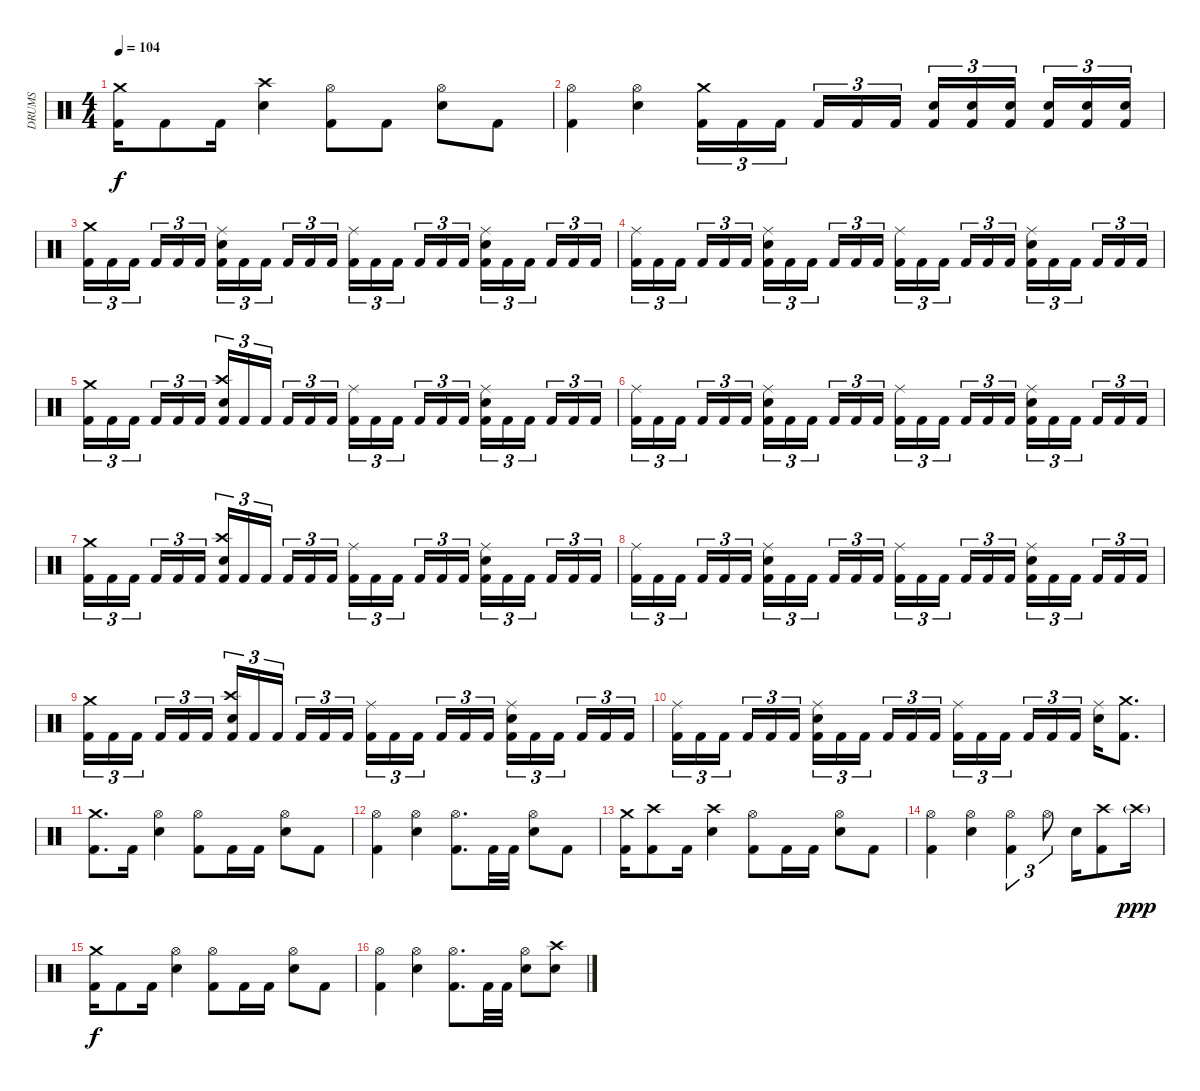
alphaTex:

\track ("DRUMS" "DRUMS") {instrument percussion}
\staff {score}
\articulation defaults
\ts (4 4)
\tempo 104
\clef neutral
\ks c
("Crash medium (hit)" "Kick (hit) 2").16{dy f} "Kick (hit) 2".8 "Kick (hit) 2".16 ("Crash high (hit)" "Snare (hit) 2").4 ("Hi-Hat (open)" "Kick (hit) 2").8 "Kick (hit) 2".8 ("Hi-Hat (open)" "Snare (hit) 2").8 "Kick (hit) 2".8 |
("Hi-Hat (open)" "Kick (hit) 2").4 ("Hi-Hat (open)" "Snare (hit) 2").4 ("Crash medium (hit)" "Kick (hit) 2").16{tu (3 2)} "Kick (hit) 2".16{tu (3 2)} "Kick (hit) 2".16{tu (3 2) beam splitsecondary} "Kick (hit) 2".16{tu (3 2)} "Kick (hit) 2".16{tu (3 2)} "Kick (hit) 2".16{tu (3 2)} ("Snare (hit) 2" "Kick (hit) 2").16{tu (3 2)} ("Snare (hit) 2" "Kick (hit) 2").16{tu (3 2)} ("Snare (hit) 2" "Kick (hit) 2").16{tu (3 2) beam splitsecondary} ("Snare (hit) 2" "Kick (hit) 2").16{tu (3 2)} ("Snare (hit) 2" "Kick (hit) 2").16{tu (3 2)} ("Snare (hit) 2" "Kick (hit) 2").16{tu (3 2)} |
("Crash medium (hit)" "Kick (hit) 2").16{tu (3 2)} "Kick (hit) 2".16{tu (3 2)} "Kick (hit) 2".16{tu (3 2) beam splitsecondary} "Kick (hit) 2".16{tu (3 2)} "Kick (hit) 2".16{tu (3 2)} "Kick (hit) 2".16{tu (3 2)} ("Ride (middle)" "Snare (hit) 2" "Kick (hit) 2").16{tu (3 2)} "Kick (hit) 2".16{tu (3 2)} "Kick (hit) 2".16{tu (3 2) beam splitsecondary} "Kick (hit) 2".16{tu (3 2)} "Kick (hit) 2".16{tu (3 2)} "Kick (hit) 2".16{tu (3 2)} ("Ride (middle)" "Kick (hit) 2").16{tu (3 2)} "Kick (hit) 2".16{tu (3 2)} "Kick (hit) 2".16{tu (3 2) beam splitsecondary} "Kick (hit) 2".16{tu (3 2)} "Kick (hit) 2".16{tu (3 2)} "Kick (hit) 2".16{tu (3 2)} ("Ride (middle)" "Snare (hit) 2" "Kick (hit) 2").16{tu (3 2)} "Kick (hit) 2".16{tu (3 2)} "Kick (hit) 2".16{tu (3 2) beam splitsecondary} "Kick (hit) 2".16{tu (3 2)} "Kick (hit) 2".16{tu (3 2)} "Kick (hit) 2".16{tu (3 2)} |
("Ride (middle)" "Kick (hit) 2").16{tu (3 2)} "Kick (hit) 2".16{tu (3 2)} "Kick (hit) 2".16{tu (3 2) beam splitsecondary} "Kick (hit) 2".16{tu (3 2)} "Kick (hit) 2".16{tu (3 2)} "Kick (hit) 2".16{tu (3 2)} ("Ride (middle)" "Snare (hit) 2" "Kick (hit) 2").16{tu (3 2)} "Kick (hit) 2".16{tu (3 2)} "Kick (hit) 2".16{tu (3 2) beam splitsecondary} "Kick (hit) 2".16{tu (3 2)} "Kick (hit) 2".16{tu (3 2)} "Kick (hit) 2".16{tu (3 2)} ("Ride (middle)" "Kick (hit) 2").16{tu (3 2)} "Kick (hit) 2".16{tu (3 2)} "Kick (hit) 2".16{tu (3 2) beam splitsecondary} "Kick (hit) 2".16{tu (3 2)} "Kick (hit) 2".16{tu (3 2)} "Kick (hit) 2".16{tu (3 2)} ("Ride (middle)" "Snare (hit) 2" "Kick (hit) 2").16{tu (3 2)} "Kick (hit) 2".16{tu (3 2)} "Kick (hit) 2".16{tu (3 2) beam splitsecondary} "Kick (hit) 2".16{tu (3 2)} "Kick (hit) 2".16{tu (3 2)} "Kick (hit) 2".16{tu (3 2)} |
("Crash medium (hit)" "Kick (hit) 2").16{tu (3 2)} "Kick (hit) 2".16{tu (3 2)} "Kick (hit) 2".16{tu (3 2) beam splitsecondary} "Kick (hit) 2".16{tu (3 2)} "Kick (hit) 2".16{tu (3 2)} "Kick (hit) 2".16{tu (3 2)} ("Crash high (hit)" "Snare (hit) 2" "Kick (hit) 2").16{tu (3 2)} "Kick (hit) 2".16{tu (3 2)} "Kick (hit) 2".16{tu (3 2) beam splitsecondary} "Kick (hit) 2".16{tu (3 2)} "Kick (hit) 2".16{tu (3 2)} "Kick (hit) 2".16{tu (3 2)} ("Ride (middle)" "Kick (hit) 2").16{tu (3 2)} "Kick (hit) 2".16{tu (3 2)} "Kick (hit) 2".16{tu (3 2) beam splitsecondary} "Kick (hit) 2".16{tu (3 2)} "Kick (hit) 2".16{tu (3 2)} "Kick (hit) 2".16{tu (3 2)} ("Ride (middle)" "Snare (hit) 2" "Kick (hit) 2").16{tu (3 2)} "Kick (hit) 2".16{tu (3 2)} "Kick (hit) 2".16{tu (3 2) beam splitsecondary} "Kick (hit) 2".16{tu (3 2)} "Kick (hit) 2".16{tu (3 2)} "Kick (hit) 2".16{tu (3 2)} |
("Ride (middle)" "Kick (hit) 2").16{tu (3 2)} "Kick (hit) 2".16{tu (3 2)} "Kick (hit) 2".16{tu (3 2) beam splitsecondary} "Kick (hit) 2".16{tu (3 2)} "Kick (hit) 2".16{tu (3 2)} "Kick (hit) 2".16{tu (3 2)} ("Ride (middle)" "Snare (hit) 2" "Kick (hit) 2").16{tu (3 2)} "Kick (hit) 2".16{tu (3 2)} "Kick (hit) 2".16{tu (3 2) beam splitsecondary} "Kick (hit) 2".16{tu (3 2)} "Kick (hit) 2".16{tu (3 2)} "Kick (hit) 2".16{tu (3 2)} ("Ride (middle)" "Kick (hit) 2").16{tu (3 2)} "Kick (hit) 2".16{tu (3 2)} "Kick (hit) 2".16{tu (3 2) beam splitsecondary} "Kick (hit) 2".16{tu (3 2)} "Kick (hit) 2".16{tu (3 2)} "Kick (hit) 2".16{tu (3 2)} ("Ride (middle)" "Snare (hit) 2" "Kick (hit) 2").16{tu (3 2)} "Kick (hit) 2".16{tu (3 2)} "Kick (hit) 2".16{tu (3 2) beam splitsecondary} "Kick (hit) 2".16{tu (3 2)} "Kick (hit) 2".16{tu (3 2)} "Kick (hit) 2".16{tu (3 2)} |
("Crash medium (hit)" "Kick (hit) 2").16{tu (3 2)} "Kick (hit) 2".16{tu (3 2)} "Kick (hit) 2".16{tu (3 2) beam splitsecondary} "Kick (hit) 2".16{tu (3 2)} "Kick (hit) 2".16{tu (3 2)} "Kick (hit) 2".16{tu (3 2)} ("Crash high (hit)" "Snare (hit) 2" "Kick (hit) 2").16{tu (3 2)} "Kick (hit) 2".16{tu (3 2)} "Kick (hit) 2".16{tu (3 2) beam splitsecondary} "Kick (hit) 2".16{tu (3 2)} "Kick (hit) 2".16{tu (3 2)} "Kick (hit) 2".16{tu (3 2)} ("Ride (middle)" "Kick (hit) 2").16{tu (3 2)} "Kick (hit) 2".16{tu (3 2)} "Kick (hit) 2".16{tu (3 2) beam splitsecondary} "Kick (hit) 2".16{tu (3 2)} "Kick (hit) 2".16{tu (3 2)} "Kick (hit) 2".16{tu (3 2)} ("Ride (middle)" "Snare (hit) 2" "Kick (hit) 2").16{tu (3 2)} "Kick (hit) 2".16{tu (3 2)} "Kick (hit) 2".16{tu (3 2) beam splitsecondary} "Kick (hit) 2".16{tu (3 2)} "Kick (hit) 2".16{tu (3 2)} "Kick (hit) 2".16{tu (3 2)} |
("Ride (middle)" "Kick (hit) 2").16{tu (3 2)} "Kick (hit) 2".16{tu (3 2)} "Kick (hit) 2".16{tu (3 2) beam splitsecondary} "Kick (hit) 2".16{tu (3 2)} "Kick (hit) 2".16{tu (3 2)} "Kick (hit) 2".16{tu (3 2)} ("Ride (middle)" "Snare (hit) 2" "Kick (hit) 2").16{tu (3 2)} "Kick (hit) 2".16{tu (3 2)} "Kick (hit) 2".16{tu (3 2) beam splitsecondary} "Kick (hit) 2".16{tu (3 2)} "Kick (hit) 2".16{tu (3 2)} "Kick (hit) 2".16{tu (3 2)} ("Ride (middle)" "Kick (hit) 2").16{tu (3 2)} "Kick (hit) 2".16{tu (3 2)} "Kick (hit) 2".16{tu (3 2) beam splitsecondary} "Kick (hit) 2".16{tu (3 2)} "Kick (hit) 2".16{tu (3 2)} "Kick (hit) 2".16{tu (3 2)} ("Ride (middle)" "Snare (hit) 2" "Kick (hit) 2").16{tu (3 2)} "Kick (hit) 2".16{tu (3 2)} "Kick (hit) 2".16{tu (3 2) beam splitsecondary} "Kick (hit) 2".16{tu (3 2)} "Kick (hit) 2".16{tu (3 2)} "Kick (hit) 2".16{tu (3 2)} |
("Crash medium (hit)" "Kick (hit) 2").16{tu (3 2)} "Kick (hit) 2".16{tu (3 2)} "Kick (hit) 2".16{tu (3 2) beam splitsecondary} "Kick (hit) 2".16{tu (3 2)} "Kick (hit) 2".16{tu (3 2)} "Kick (hit) 2".16{tu (3 2)} ("Crash high (hit)" "Snare (hit) 2" "Kick (hit) 2").16{tu (3 2)} "Kick (hit) 2".16{tu (3 2)} "Kick (hit) 2".16{tu (3 2) beam splitsecondary} "Kick (hit) 2".16{tu (3 2)} "Kick (hit) 2".16{tu (3 2)} "Kick (hit) 2".16{tu (3 2)} ("Ride (middle)" "Kick (hit) 2").16{tu (3 2)} "Kick (hit) 2".16{tu (3 2)} "Kick (hit) 2".16{tu (3 2) beam splitsecondary} "Kick (hit) 2".16{tu (3 2)} "Kick (hit) 2".16{tu (3 2)} "Kick (hit) 2".16{tu (3 2)} ("Ride (middle)" "Snare (hit) 2" "Kick (hit) 2").16{tu (3 2)} "Kick (hit) 2".16{tu (3 2)} "Kick (hit) 2".16{tu (3 2) beam splitsecondary} "Kick (hit) 2".16{tu (3 2)} "Kick (hit) 2".16{tu (3 2)} "Kick (hit) 2".16{tu (3 2)} |
("Ride (middle)" "Kick (hit) 2").16{tu (3 2)} "Kick (hit) 2".16{tu (3 2)} "Kick (hit) 2".16{tu (3 2) beam splitsecondary} "Kick (hit) 2".16{tu (3 2)} "Kick (hit) 2".16{tu (3 2)} "Kick (hit) 2".16{tu (3 2)} ("Ride (middle)" "Snare (hit) 2" "Kick (hit) 2").16{tu (3 2)} "Kick (hit) 2".16{tu (3 2)} "Kick (hit) 2".16{tu (3 2) beam splitsecondary} "Kick (hit) 2".16{tu (3 2)} "Kick (hit) 2".16{tu (3 2)} "Kick (hit) 2".16{tu (3 2)} ("Ride (middle)" "Kick (hit) 2").16{tu (3 2)} "Kick (hit) 2".16{tu (3 2)} "Kick (hit) 2".16{tu (3 2) beam splitsecondary} "Kick (hit) 2".16{tu (3 2)} "Kick (hit) 2".16{tu (3 2)} "Kick (hit) 2".16{tu (3 2)} ("Ride (middle)" "Snare (hit) 2").16 ("Crash medium (hit)" "Kick (hit) 2").8{d} |
("Crash medium (hit)" "Kick (hit) 2").8{d} "Kick (hit) 2".16 ("Hi-Hat (open)" "Snare (hit) 2").4 ("Hi-Hat (open)" "Kick (hit) 2").8 "Kick (hit) 2".16 "Kick (hit) 2".16 ("Hi-Hat (open)" "Snare (hit) 2").8 "Kick (hit) 2".8 |
("Hi-Hat (open)" "Kick (hit) 2").4 ("Hi-Hat (open)" "Snare (hit) 2").4 ("Hi-Hat (open)" "Kick (hit) 2").8{d} "Kick (hit) 2".32 "Kick (hit) 2".32 ("Hi-Hat (open)" "Snare (hit) 2").8 "Kick (hit) 2".8 |
("Crash medium (hit)" "Kick (hit) 2").16 ("Crash high (hit)" "Kick (hit) 2").8 "Kick (hit) 2".16 ("Crash high (hit)" "Snare (hit) 2").4 ("Hi-Hat (open)" "Kick (hit) 2").8 "Kick (hit) 2".16 "Kick (hit) 2".16 ("Hi-Hat (open)" "Snare (hit) 2").8 "Kick (hit) 2".8 |
("Hi-Hat (open)" "Kick (hit) 2").4 ("Hi-Hat (open)" "Snare (hit) 2").4 ("Hi-Hat (open)" "Kick (hit) 2").4{tu (3 2)} "Hi-Hat (open)".8{tu (3 2)} "Snare (hit) 2".16 ("Crash high (hit)" "Kick (hit) 2").8 "Crash high (hit)"{g}.16{dy ppp} |
("Crash medium (hit)" "Kick (hit) 2").16{dy f} "Kick (hit) 2".8 "Kick (hit) 2".16 ("Hi-Hat (open)" "Snare (hit) 2").4 ("Hi-Hat (open)" "Kick (hit) 2").8 "Kick (hit) 2".16 "Kick (hit) 2".16 ("Hi-Hat (open)" "Snare (hit) 2").8 "Kick (hit) 2".8 |
("Hi-Hat (open)" "Kick (hit) 2").4 ("Hi-Hat (open)" "Snare (hit) 2").4 ("Hi-Hat (open)" "Kick (hit) 2").8{d} "Kick (hit) 2".32 "Kick (hit) 2".32 ("Hi-Hat (open)" "Snare (hit) 2").8 ("Crash high (hit)" "Snare (hit) 2").8
